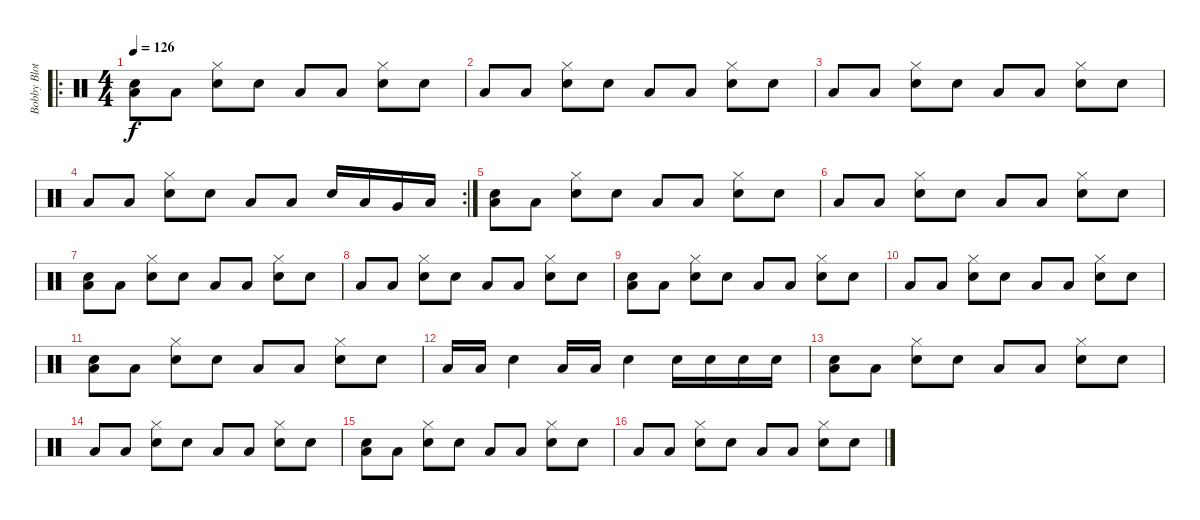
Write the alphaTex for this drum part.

\track ("Bobby Blotzer" "Bobby Blot") {instrument percussion}
\staff {score}
\articulation defaults
\ro
\ts (4 4)
\tempo 126
\clef neutral
\ks c
("Snare (hit) 2" "Low Floor Tom (hit)").8{dy f} "Low Floor Tom (hit)".8 ("Hi-Hat (closed)" "Snare (hit) 2").8 "Snare (hit) 2".8 "Low Floor Tom (hit)".8 "Low Floor Tom (hit)".8 ("Hi-Hat (closed)" "Snare (hit) 2").8 "Snare (hit) 2".8 |
"Low Floor Tom (hit)".8 "Low Floor Tom (hit)".8 ("Hi-Hat (closed)" "Snare (hit) 2").8 "Snare (hit) 2".8 "Low Floor Tom (hit)".8 "Low Floor Tom (hit)".8 ("Hi-Hat (closed)" "Snare (hit) 2").8 "Snare (hit) 2".8 |
"Low Floor Tom (hit)".8 "Low Floor Tom (hit)".8 ("Hi-Hat (closed)" "Snare (hit) 2").8 "Snare (hit) 2".8 "Low Floor Tom (hit)".8 "Low Floor Tom (hit)".8 ("Hi-Hat (closed)" "Snare (hit) 2").8 "Snare (hit) 2".8 |
\rc 2 "Low Floor Tom (hit)".8 "Low Floor Tom (hit)".8
("Hi-Hat (closed)" "Snare (hit) 2").8 "Snare (hit) 2".8 "Low Floor Tom (hit)".8 "Low Floor Tom (hit)".8 "Snare (hit) 2".16 "Low Tom (hit)".16 "Very Low Tom (hit)".16 "Low Floor Tom (hit)".16 |
("Snare (hit) 2" "Low Floor Tom (hit)").8 "Low Floor Tom (hit)".8 ("Hi-Hat (closed)" "Snare (hit) 2").8 "Snare (hit) 2".8 "Low Floor Tom (hit)".8 "Low Floor Tom (hit)".8 ("Hi-Hat (closed)" "Snare (hit) 2").8 "Snare (hit) 2".8 |
"Low Floor Tom (hit)".8 "Low Floor Tom (hit)".8 ("Hi-Hat (closed)" "Snare (hit) 2").8 "Snare (hit) 2".8 "Low Floor Tom (hit)".8 "Low Floor Tom (hit)".8 ("Hi-Hat (closed)" "Snare (hit) 2").8 "Snare (hit) 2".8 |
("Snare (hit) 2" "Low Floor Tom (hit)").8 "Low Floor Tom (hit)".8 ("Hi-Hat (closed)" "Snare (hit) 2").8 "Snare (hit) 2".8 "Low Floor Tom (hit)".8 "Low Floor Tom (hit)".8 ("Hi-Hat (closed)" "Snare (hit) 2").8 "Snare (hit) 2".8 |
"Low Floor Tom (hit)".8 "Low Floor Tom (hit)".8 ("Hi-Hat (closed)" "Snare (hit) 2").8 "Snare (hit) 2".8 "Low Floor Tom (hit)".8 "Low Floor Tom (hit)".8 ("Hi-Hat (closed)" "Snare (hit) 2").8 "Snare (hit) 2".8 |
("Snare (hit) 2" "Low Floor Tom (hit)").8 "Low Floor Tom (hit)".8 ("Hi-Hat (closed)" "Snare (hit) 2").8 "Snare (hit) 2".8 "Low Floor Tom (hit)".8 "Low Floor Tom (hit)".8 ("Hi-Hat (closed)" "Snare (hit) 2").8 "Snare (hit) 2".8 |
"Low Floor Tom (hit)".8 "Low Floor Tom (hit)".8 ("Hi-Hat (closed)" "Snare (hit) 2").8 "Snare (hit) 2".8 "Low Floor Tom (hit)".8 "Low Floor Tom (hit)".8 ("Hi-Hat (closed)" "Snare (hit) 2").8 "Snare (hit) 2".8 |
("Snare (hit) 2" "Low Floor Tom (hit)").8 "Low Floor Tom (hit)".8 ("Hi-Hat (closed)" "Snare (hit) 2").8 "Snare (hit) 2".8 "Low Floor Tom (hit)".8 "Low Floor Tom (hit)".8 ("Hi-Hat (closed)" "Snare (hit) 2").8 "Snare (hit) 2".8 |
"Low Floor Tom (hit)".16 "Low Floor Tom (hit)".16 "Snare (hit) 2".4 "Low Floor Tom (hit)".16 "Low Floor Tom (hit)".16 "Snare (hit) 2".4 "Snare (hit) 2".16 "Snare (hit) 2".16 "Snare (hit) 2".16 "Snare (hit) 2".16 |
("Snare (hit) 2" "Low Floor Tom (hit)").8 "Low Floor Tom (hit)".8 ("Hi-Hat (closed)" "Snare (hit) 2").8 "Snare (hit) 2".8 "Low Floor Tom (hit)".8 "Low Floor Tom (hit)".8 ("Hi-Hat (closed)" "Snare (hit) 2").8 "Snare (hit) 2".8 |
"Low Floor Tom (hit)".8 "Low Floor Tom (hit)".8 ("Hi-Hat (closed)" "Snare (hit) 2").8 "Snare (hit) 2".8 "Low Floor Tom (hit)".8 "Low Floor Tom (hit)".8 ("Hi-Hat (closed)" "Snare (hit) 2").8 "Snare (hit) 2".8 |
("Snare (hit) 2" "Low Floor Tom (hit)").8 "Low Floor Tom (hit)".8 ("Hi-Hat (closed)" "Snare (hit) 2").8 "Snare (hit) 2".8 "Low Floor Tom (hit)".8 "Low Floor Tom (hit)".8 ("Hi-Hat (closed)" "Snare (hit) 2").8 "Snare (hit) 2".8 |
"Low Floor Tom (hit)".8 "Low Floor Tom (hit)".8 ("Hi-Hat (closed)" "Snare (hit) 2").8 "Snare (hit) 2".8 "Low Floor Tom (hit)".8 "Low Floor Tom (hit)".8 ("Hi-Hat (closed)" "Snare (hit) 2").8 "Snare (hit) 2".8
